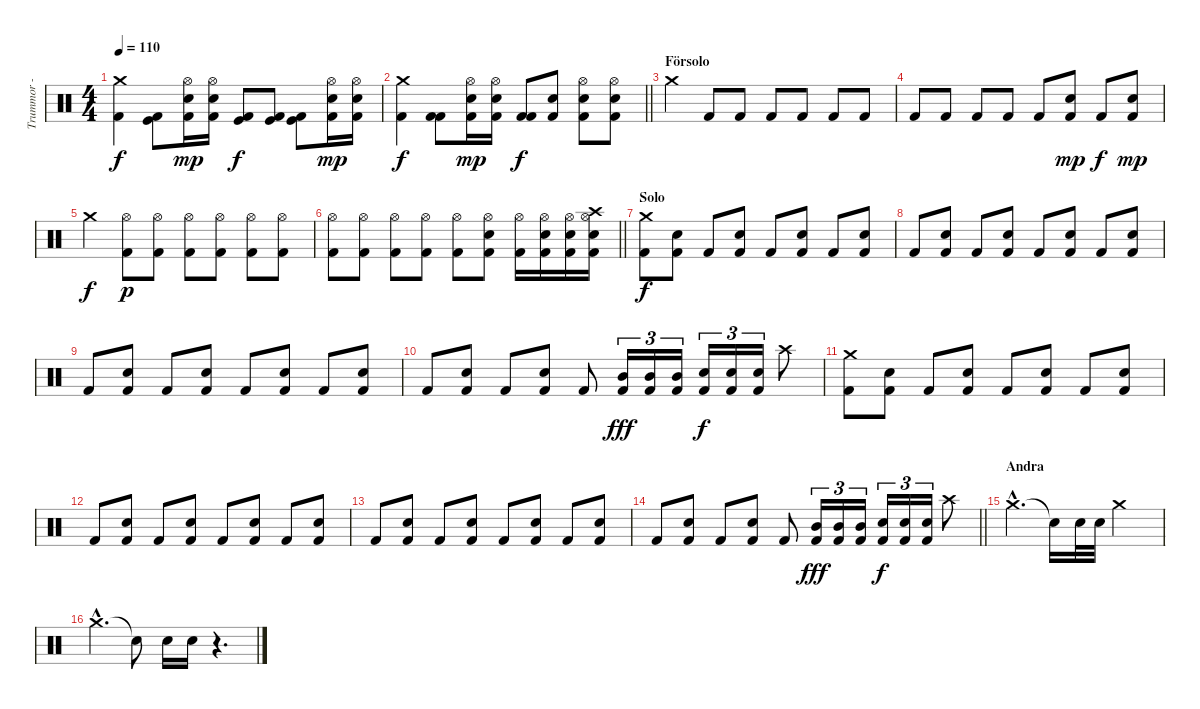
\track ("Trummor - Larzon" "Trummor - ") {instrument percussion}
\staff {score}
\articulation defaults
\ts (4 4)
\tempo 110
\clef neutral
\ks c
("Crash medium (hit)" "Kick (hit) 2").4{dy f} ("Kick (hit)" "Kick (hit) 2").8 ("Snare (hit) 2" "Hi-Hat (open)" "Kick (hit) 2").16{dy mp} ("Snare (hit) 2" "Hi-Hat (open)" "Kick (hit) 2").16 ("Kick (hit)" "Kick (hit) 2").8{dy f} ("Kick (hit)" "Kick (hit) 2").8 ("Kick (hit)" "Kick (hit) 2").8 ("Snare (hit) 2" "Hi-Hat (open)" "Kick (hit) 2").16{dy mp} ("Snare (hit) 2" "Hi-Hat (open)" "Kick (hit) 2").16 |
\barLineRight lightlight
("Crash medium (hit)" "Kick (hit) 2").4{dy f} ("Kick (hit) 2" "Kick (hit) 2").8 ("Snare (hit) 2" "Hi-Hat (open)" "Kick (hit) 2").16{dy mp} ("Snare (hit) 2" "Hi-Hat (open)" "Kick (hit) 2").16 ("Kick (hit) 2" "Kick (hit) 2").8{dy f} ("Snare (hit) 2" "Kick (hit) 2").8 ("Snare (hit) 2" "Hi-Hat (open)" "Kick (hit) 2").8 ("Snare (hit) 2" "Hi-Hat (open)" "Kick (hit) 2").8 |
\section ("" "Försolo")
"Crash medium (hit)".4 "Kick (hit) 2".8 "Kick (hit) 2".8 "Kick (hit) 2".8 "Kick (hit) 2".8 "Kick (hit) 2".8 "Kick (hit) 2".8 |
"Kick (hit) 2".8 "Kick (hit) 2".8 "Kick (hit) 2".8 "Kick (hit) 2".8 "Kick (hit) 2".8 ("Kick (hit) 2" "Snare (hit) 2").8{dy mp} "Kick (hit) 2".8{dy f} ("Kick (hit) 2" "Snare (hit) 2").8{dy mp} |
"Crash medium (hit)".4{dy f} ("Kick (hit) 2" "Hi-Hat (open)").8{dy p} ("Kick (hit) 2" "Hi-Hat (open)").8 ("Kick (hit) 2" "Hi-Hat (open)").8 ("Kick (hit) 2" "Hi-Hat (open)").8 ("Kick (hit) 2" "Hi-Hat (open)").8 ("Kick (hit) 2" "Hi-Hat (open)").8 |
\barLineRight lightlight
("Kick (hit) 2" "Hi-Hat (open)").8 ("Kick (hit) 2" "Hi-Hat (open)").8 ("Kick (hit) 2" "Hi-Hat (open)").8 ("Kick (hit) 2" "Hi-Hat (open)").8 ("Kick (hit) 2" "Hi-Hat (open)").8 ("Kick (hit) 2" "Hi-Hat (open)" "Snare (hit) 2").8 ("Kick (hit) 2" "Hi-Hat (open)").16 ("Kick (hit) 2" "Hi-Hat (open)" "Snare (hit) 2").16 ("Kick (hit) 2" "Hi-Hat (open)" "Snare (hit) 2").16 ("Kick (hit) 2" "Hi-Hat (open)" "Snare (hit) 2" "Crash high (hit)").16 |
\section ("" "Solo")
("Kick (hit) 2" "Crash medium (hit)").8{dy f} ("Kick (hit) 2" "Snare (hit) 2").8 "Kick (hit) 2".8 ("Kick (hit) 2" "Snare (hit) 2").8 "Kick (hit) 2".8 ("Kick (hit) 2" "Snare (hit) 2").8 "Kick (hit) 2".8 ("Kick (hit) 2" "Snare (hit) 2").8 |
"Kick (hit) 2".8 ("Kick (hit) 2" "Snare (hit) 2").8 "Kick (hit) 2".8 ("Kick (hit) 2" "Snare (hit) 2").8 "Kick (hit) 2".8 ("Kick (hit) 2" "Snare (hit) 2").8 "Kick (hit) 2".8 ("Kick (hit) 2" "Snare (hit) 2").8 |
"Kick (hit) 2".8 ("Kick (hit) 2" "Snare (hit) 2").8 "Kick (hit) 2".8 ("Kick (hit) 2" "Snare (hit) 2").8 "Kick (hit) 2".8 ("Kick (hit) 2" "Snare (hit) 2").8 "Kick (hit) 2".8 ("Kick (hit) 2" "Snare (hit) 2").8 |
"Kick (hit) 2".8 ("Kick (hit) 2" "Snare (hit) 2").8 "Kick (hit) 2".8 ("Kick (hit) 2" "Snare (hit) 2").8 "Kick (hit) 2".8 ("Kick (hit) 2" "Mid Tom (hit)").16{tu (3 2) dy fff} ("Kick (hit) 2" "Mid Tom (hit)").16{tu (3 2)} ("Kick (hit) 2" "Mid Tom (hit)").16{tu (3 2)} ("Kick (hit) 2" "Snare (hit) 2").16{tu (3 2) dy f} ("Kick (hit) 2" "Snare (hit) 2").16{tu (3 2)} ("Kick (hit) 2" "Snare (hit) 2").16{tu (3 2)} "Crash high (hit)".8 |
("Kick (hit) 2" "Crash medium (hit)").8 ("Kick (hit) 2" "Snare (hit) 2").8 "Kick (hit) 2".8 ("Kick (hit) 2" "Snare (hit) 2").8 "Kick (hit) 2".8 ("Kick (hit) 2" "Snare (hit) 2").8 "Kick (hit) 2".8 ("Kick (hit) 2" "Snare (hit) 2").8 |
"Kick (hit) 2".8 ("Kick (hit) 2" "Snare (hit) 2").8 "Kick (hit) 2".8 ("Kick (hit) 2" "Snare (hit) 2").8 "Kick (hit) 2".8 ("Kick (hit) 2" "Snare (hit) 2").8 "Kick (hit) 2".8 ("Kick (hit) 2" "Snare (hit) 2").8 |
"Kick (hit) 2".8 ("Kick (hit) 2" "Snare (hit) 2").8 "Kick (hit) 2".8 ("Kick (hit) 2" "Snare (hit) 2").8 "Kick (hit) 2".8 ("Kick (hit) 2" "Snare (hit) 2").8 "Kick (hit) 2".8 ("Kick (hit) 2" "Snare (hit) 2").8 |
\barLineRight lightlight "Kick (hit) 2".8
("Kick (hit) 2" "Snare (hit) 2").8 "Kick (hit) 2".8 ("Kick (hit) 2" "Snare (hit) 2").8 "Kick (hit) 2".8 ("Kick (hit) 2" "Mid Tom (hit)").16{tu (3 2) dy fff} ("Kick (hit) 2" "Mid Tom (hit)").16{tu (3 2)} ("Kick (hit) 2" "Mid Tom (hit)").16{tu (3 2)} ("Kick (hit) 2" "Snare (hit) 2").16{tu (3 2) dy f} ("Kick (hit) 2" "Snare (hit) 2").16{tu (3 2)} ("Kick (hit) 2" "Snare (hit) 2").16{tu (3 2)} "Crash high (hit)".8 |
\section ("" "Andra")
"Crash medium (hit)"{hac}.4{d} "Snare (hit) 2"{t}.16 "Snare (hit) 2".32 "Snare (hit) 2".32 "Crash medium (hit)".2 |
"Crash medium (hit)"{hac}.4{d} "Snare (hit) 2"{t}.8 "Snare (hit) 2".16 "Snare (hit) 2".16 r.4{d}
